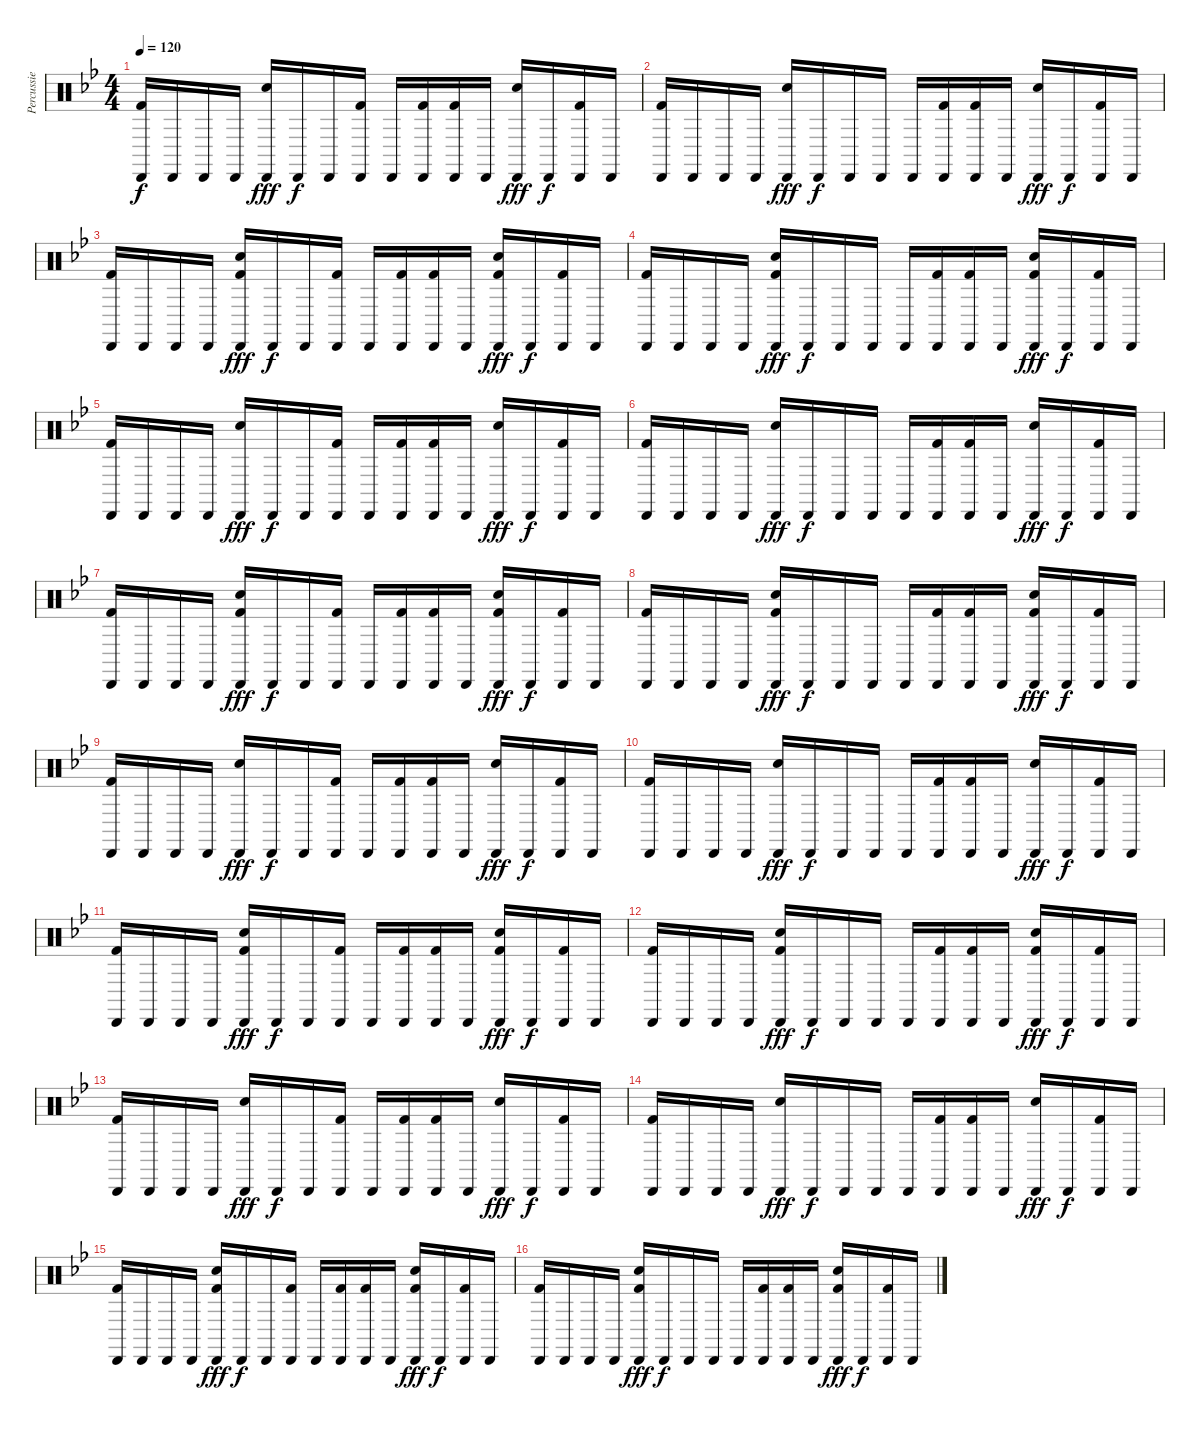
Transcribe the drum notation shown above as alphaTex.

\track ("Percussie" "Percussie") {instrument percussion}
\staff {score}
\articulation defaults
\ts (4 4)
\tempo 120
\clef neutral
\ks bb
("Cabasa (hit)" "Kick (hit) 2").16{dy f} "Cabasa (hit)".16 "Cabasa (hit)".16 "Cabasa (hit)".16 ("Cabasa (hit)" "Snare (hit) 2").16{dy fff} "Cabasa (hit)".16{dy f} "Cabasa (hit)".16 ("Cabasa (hit)" "Kick (hit) 2").16 "Cabasa (hit)".16 ("Cabasa (hit)" "Kick (hit) 2").16 ("Cabasa (hit)" "Kick (hit) 2").16 "Cabasa (hit)".16 ("Cabasa (hit)" "Snare (hit) 2").16{dy fff} "Cabasa (hit)".16{dy f} ("Cabasa (hit)" "Kick (hit) 2").16 "Cabasa (hit)".16 |
("Cabasa (hit)" "Kick (hit) 2").16 "Cabasa (hit)".16 "Cabasa (hit)".16 "Cabasa (hit)".16 ("Cabasa (hit)" "Snare (hit) 2").16{dy fff} "Cabasa (hit)".16{dy f} "Cabasa (hit)".16 "Cabasa (hit)".16 "Cabasa (hit)".16 ("Cabasa (hit)" "Kick (hit) 2").16 ("Cabasa (hit)" "Kick (hit) 2").16 "Cabasa (hit)".16 ("Cabasa (hit)" "Snare (hit) 2").16{dy fff} "Cabasa (hit)".16{dy f} ("Cabasa (hit)" "Kick (hit) 2").16 "Cabasa (hit)".16 |
("Cabasa (hit)" "Kick (hit) 2").16 "Cabasa (hit)".16 "Cabasa (hit)".16 "Cabasa (hit)".16 ("Cabasa (hit)" "Kick (hit) 2" "Snare (hit) 2").16{dy fff} "Cabasa (hit)".16{dy f} "Cabasa (hit)".16 ("Cabasa (hit)" "Kick (hit) 2").16 "Cabasa (hit)".16 ("Cabasa (hit)" "Kick (hit) 2").16 ("Cabasa (hit)" "Kick (hit) 2").16 "Cabasa (hit)".16 ("Cabasa (hit)" "Kick (hit) 2" "Snare (hit) 2").16{dy fff} "Cabasa (hit)".16{dy f} ("Cabasa (hit)" "Kick (hit) 2").16 "Cabasa (hit)".16 |
("Cabasa (hit)" "Kick (hit) 2").16 "Cabasa (hit)".16 "Cabasa (hit)".16 "Cabasa (hit)".16 ("Cabasa (hit)" "Kick (hit) 2" "Snare (hit) 2").16{dy fff} "Cabasa (hit)".16{dy f} "Cabasa (hit)".16 "Cabasa (hit)".16 "Cabasa (hit)".16 ("Cabasa (hit)" "Kick (hit) 2").16 ("Cabasa (hit)" "Kick (hit) 2").16 "Cabasa (hit)".16 ("Cabasa (hit)" "Kick (hit) 2" "Snare (hit) 2").16{dy fff} "Cabasa (hit)".16{dy f} ("Cabasa (hit)" "Kick (hit) 2").16 "Cabasa (hit)".16 |
("Cabasa (hit)" "Kick (hit) 2").16 "Cabasa (hit)".16 "Cabasa (hit)".16 "Cabasa (hit)".16 ("Cabasa (hit)" "Snare (hit) 2").16{dy fff} "Cabasa (hit)".16{dy f} "Cabasa (hit)".16 ("Cabasa (hit)" "Kick (hit) 2").16 "Cabasa (hit)".16 ("Cabasa (hit)" "Kick (hit) 2").16 ("Cabasa (hit)" "Kick (hit) 2").16 "Cabasa (hit)".16 ("Cabasa (hit)" "Snare (hit) 2").16{dy fff} "Cabasa (hit)".16{dy f} ("Cabasa (hit)" "Kick (hit) 2").16 "Cabasa (hit)".16 |
("Cabasa (hit)" "Kick (hit) 2").16 "Cabasa (hit)".16 "Cabasa (hit)".16 "Cabasa (hit)".16 ("Cabasa (hit)" "Snare (hit) 2").16{dy fff} "Cabasa (hit)".16{dy f} "Cabasa (hit)".16 "Cabasa (hit)".16 "Cabasa (hit)".16 ("Cabasa (hit)" "Kick (hit) 2").16 ("Cabasa (hit)" "Kick (hit) 2").16 "Cabasa (hit)".16 ("Cabasa (hit)" "Snare (hit) 2").16{dy fff} "Cabasa (hit)".16{dy f} ("Cabasa (hit)" "Kick (hit) 2").16 "Cabasa (hit)".16 |
("Cabasa (hit)" "Kick (hit) 2").16 "Cabasa (hit)".16 "Cabasa (hit)".16 "Cabasa (hit)".16 ("Cabasa (hit)" "Kick (hit) 2" "Snare (hit) 2").16{dy fff} "Cabasa (hit)".16{dy f} "Cabasa (hit)".16 ("Cabasa (hit)" "Kick (hit) 2").16 "Cabasa (hit)".16 ("Cabasa (hit)" "Kick (hit) 2").16 ("Cabasa (hit)" "Kick (hit) 2").16 "Cabasa (hit)".16 ("Cabasa (hit)" "Kick (hit) 2" "Snare (hit) 2").16{dy fff} "Cabasa (hit)".16{dy f} ("Cabasa (hit)" "Kick (hit) 2").16 "Cabasa (hit)".16 |
("Cabasa (hit)" "Kick (hit) 2").16 "Cabasa (hit)".16 "Cabasa (hit)".16 "Cabasa (hit)".16 ("Cabasa (hit)" "Kick (hit) 2" "Snare (hit) 2").16{dy fff} "Cabasa (hit)".16{dy f} "Cabasa (hit)".16 "Cabasa (hit)".16 "Cabasa (hit)".16 ("Cabasa (hit)" "Kick (hit) 2").16 ("Cabasa (hit)" "Kick (hit) 2").16 "Cabasa (hit)".16 ("Cabasa (hit)" "Kick (hit) 2" "Snare (hit) 2").16{dy fff} "Cabasa (hit)".16{dy f} ("Cabasa (hit)" "Kick (hit) 2").16 "Cabasa (hit)".16 |
("Cabasa (hit)" "Kick (hit) 2").16 "Cabasa (hit)".16 "Cabasa (hit)".16 "Cabasa (hit)".16 ("Cabasa (hit)" "Snare (hit) 2").16{dy fff} "Cabasa (hit)".16{dy f} "Cabasa (hit)".16 ("Cabasa (hit)" "Kick (hit) 2").16 "Cabasa (hit)".16 ("Cabasa (hit)" "Kick (hit) 2").16 ("Cabasa (hit)" "Kick (hit) 2").16 "Cabasa (hit)".16 ("Cabasa (hit)" "Snare (hit) 2").16{dy fff} "Cabasa (hit)".16{dy f} ("Cabasa (hit)" "Kick (hit) 2").16 "Cabasa (hit)".16 |
("Cabasa (hit)" "Kick (hit) 2").16 "Cabasa (hit)".16 "Cabasa (hit)".16 "Cabasa (hit)".16 ("Cabasa (hit)" "Snare (hit) 2").16{dy fff} "Cabasa (hit)".16{dy f} "Cabasa (hit)".16 "Cabasa (hit)".16 "Cabasa (hit)".16 ("Cabasa (hit)" "Kick (hit) 2").16 ("Cabasa (hit)" "Kick (hit) 2").16 "Cabasa (hit)".16 ("Cabasa (hit)" "Snare (hit) 2").16{dy fff} "Cabasa (hit)".16{dy f} ("Cabasa (hit)" "Kick (hit) 2").16 "Cabasa (hit)".16 |
("Cabasa (hit)" "Kick (hit) 2").16 "Cabasa (hit)".16 "Cabasa (hit)".16 "Cabasa (hit)".16 ("Cabasa (hit)" "Kick (hit) 2" "Snare (hit) 2").16{dy fff} "Cabasa (hit)".16{dy f} "Cabasa (hit)".16 ("Cabasa (hit)" "Kick (hit) 2").16 "Cabasa (hit)".16 ("Cabasa (hit)" "Kick (hit) 2").16 ("Cabasa (hit)" "Kick (hit) 2").16 "Cabasa (hit)".16 ("Cabasa (hit)" "Kick (hit) 2" "Snare (hit) 2").16{dy fff} "Cabasa (hit)".16{dy f} ("Cabasa (hit)" "Kick (hit) 2").16 "Cabasa (hit)".16 |
("Cabasa (hit)" "Kick (hit) 2").16 "Cabasa (hit)".16 "Cabasa (hit)".16 "Cabasa (hit)".16 ("Cabasa (hit)" "Kick (hit) 2" "Snare (hit) 2").16{dy fff} "Cabasa (hit)".16{dy f} "Cabasa (hit)".16 "Cabasa (hit)".16 "Cabasa (hit)".16 ("Cabasa (hit)" "Kick (hit) 2").16 ("Cabasa (hit)" "Kick (hit) 2").16 "Cabasa (hit)".16 ("Cabasa (hit)" "Kick (hit) 2" "Snare (hit) 2").16{dy fff} "Cabasa (hit)".16{dy f} ("Cabasa (hit)" "Kick (hit) 2").16 "Cabasa (hit)".16 |
("Cabasa (hit)" "Kick (hit) 2").16 "Cabasa (hit)".16 "Cabasa (hit)".16 "Cabasa (hit)".16 ("Cabasa (hit)" "Snare (hit) 2").16{dy fff} "Cabasa (hit)".16{dy f} "Cabasa (hit)".16 ("Cabasa (hit)" "Kick (hit) 2").16 "Cabasa (hit)".16 ("Cabasa (hit)" "Kick (hit) 2").16 ("Cabasa (hit)" "Kick (hit) 2").16 "Cabasa (hit)".16 ("Cabasa (hit)" "Snare (hit) 2").16{dy fff} "Cabasa (hit)".16{dy f} ("Cabasa (hit)" "Kick (hit) 2").16 "Cabasa (hit)".16 |
("Cabasa (hit)" "Kick (hit) 2").16 "Cabasa (hit)".16 "Cabasa (hit)".16 "Cabasa (hit)".16 ("Cabasa (hit)" "Snare (hit) 2").16{dy fff} "Cabasa (hit)".16{dy f} "Cabasa (hit)".16 "Cabasa (hit)".16 "Cabasa (hit)".16 ("Cabasa (hit)" "Kick (hit) 2").16 ("Cabasa (hit)" "Kick (hit) 2").16 "Cabasa (hit)".16 ("Cabasa (hit)" "Snare (hit) 2").16{dy fff} "Cabasa (hit)".16{dy f} ("Cabasa (hit)" "Kick (hit) 2").16 "Cabasa (hit)".16 |
("Cabasa (hit)" "Kick (hit) 2").16 "Cabasa (hit)".16 "Cabasa (hit)".16 "Cabasa (hit)".16 ("Cabasa (hit)" "Kick (hit) 2" "Snare (hit) 2").16{dy fff} "Cabasa (hit)".16{dy f} "Cabasa (hit)".16 ("Cabasa (hit)" "Kick (hit) 2").16 "Cabasa (hit)".16 ("Cabasa (hit)" "Kick (hit) 2").16 ("Cabasa (hit)" "Kick (hit) 2").16 "Cabasa (hit)".16 ("Cabasa (hit)" "Kick (hit) 2" "Snare (hit) 2").16{dy fff} "Cabasa (hit)".16{dy f} ("Cabasa (hit)" "Kick (hit) 2").16 "Cabasa (hit)".16 |
("Cabasa (hit)" "Kick (hit) 2").16 "Cabasa (hit)".16 "Cabasa (hit)".16 "Cabasa (hit)".16 ("Cabasa (hit)" "Kick (hit) 2" "Snare (hit) 2").16{dy fff} "Cabasa (hit)".16{dy f} "Cabasa (hit)".16 "Cabasa (hit)".16 "Cabasa (hit)".16 ("Cabasa (hit)" "Kick (hit) 2").16 ("Cabasa (hit)" "Kick (hit) 2").16 "Cabasa (hit)".16 ("Cabasa (hit)" "Kick (hit) 2" "Snare (hit) 2").16{dy fff} "Cabasa (hit)".16{dy f} ("Cabasa (hit)" "Kick (hit) 2").16 "Cabasa (hit)".16
